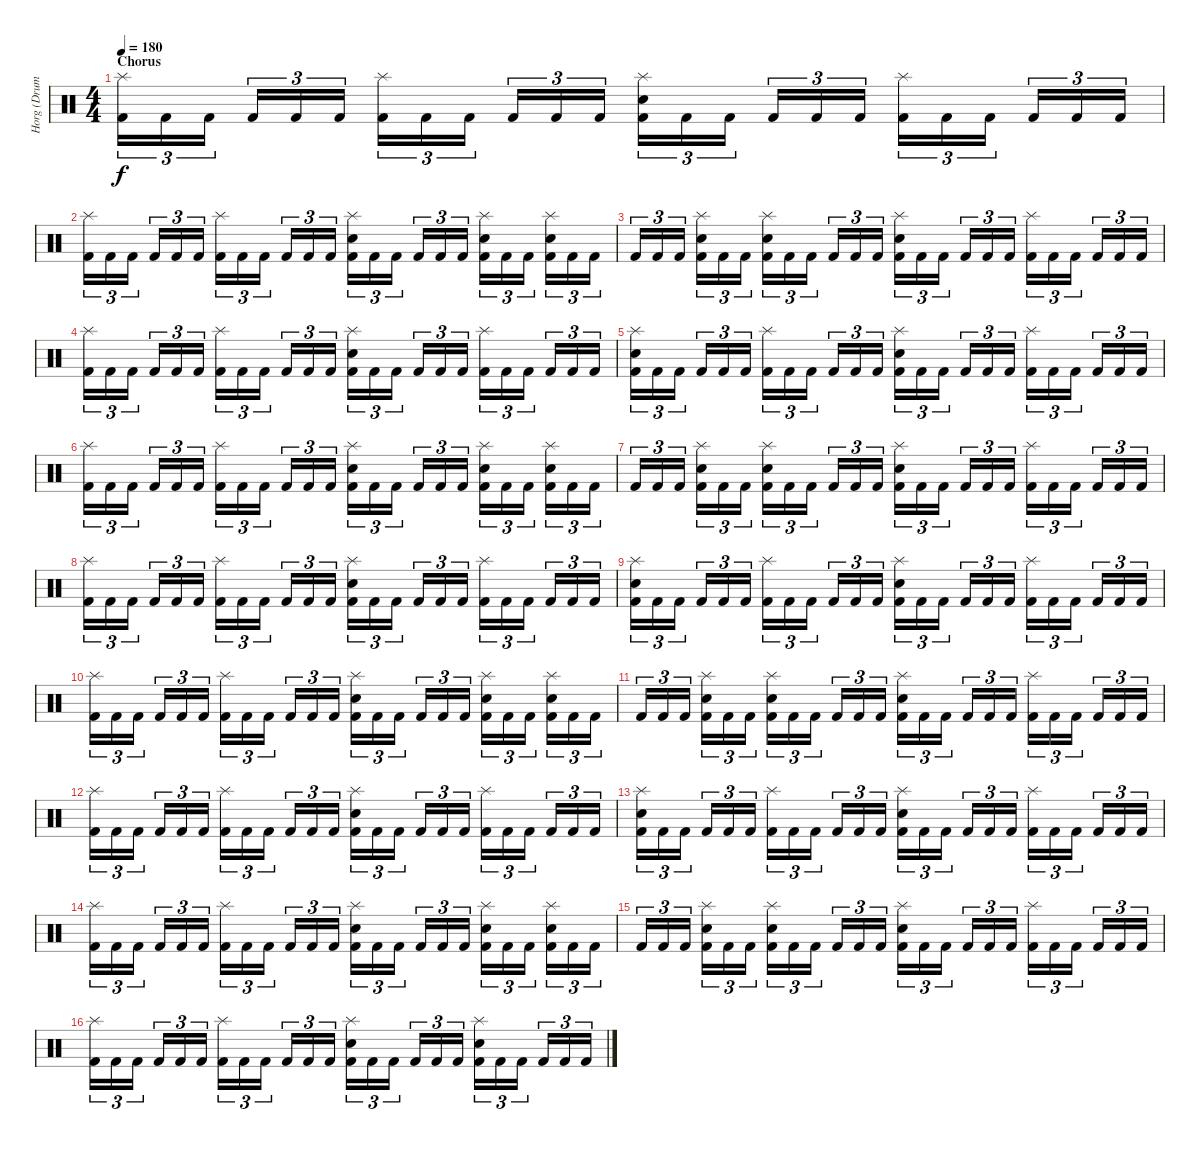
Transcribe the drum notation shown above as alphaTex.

\track ("Horg (Drums)" "Horg (Drum") {instrument percussion}
\staff {score}
\articulation defaults
\ts (4 4)
\section ("" "Chorus")
\tempo 180
\clef neutral
\ks c
("Splash (hit)" "Kick (hit) 2").16{tu (3 2) dy f} "Kick (hit) 2".16{tu (3 2)} "Kick (hit) 2".16{tu (3 2)} "Kick (hit) 2".16{tu (3 2)} "Kick (hit) 2".16{tu (3 2)} "Kick (hit) 2".16{tu (3 2)} ("Splash (hit)" "Kick (hit) 2").16{tu (3 2)} "Kick (hit) 2".16{tu (3 2)} "Kick (hit) 2".16{tu (3 2)} "Kick (hit) 2".16{tu (3 2)} "Kick (hit) 2".16{tu (3 2)} "Kick (hit) 2".16{tu (3 2)} ("Splash (hit)" "Electric Snare (hit)" "Kick (hit) 2").16{tu (3 2)} "Kick (hit) 2".16{tu (3 2)} "Kick (hit) 2".16{tu (3 2)} "Kick (hit) 2".16{tu (3 2)} "Kick (hit) 2".16{tu (3 2)} "Kick (hit) 2".16{tu (3 2)} ("Splash (hit)" "Kick (hit) 2").16{tu (3 2)} "Kick (hit) 2".16{tu (3 2)} "Kick (hit) 2".16{tu (3 2)} "Kick (hit) 2".16{tu (3 2)} "Kick (hit) 2".16{tu (3 2)} "Kick (hit) 2".16{tu (3 2)} |
("Splash (hit)" "Kick (hit) 2").16{tu (3 2)} "Kick (hit) 2".16{tu (3 2)} "Kick (hit) 2".16{tu (3 2)} "Kick (hit) 2".16{tu (3 2)} "Kick (hit) 2".16{tu (3 2)} "Kick (hit) 2".16{tu (3 2)} ("Splash (hit)" "Kick (hit) 2").16{tu (3 2)} "Kick (hit) 2".16{tu (3 2)} "Kick (hit) 2".16{tu (3 2)} "Kick (hit) 2".16{tu (3 2)} "Kick (hit) 2".16{tu (3 2)} "Kick (hit) 2".16{tu (3 2)} ("Splash (hit)" "Electric Snare (hit)" "Kick (hit) 2").16{tu (3 2)} "Kick (hit) 2".16{tu (3 2)} "Kick (hit) 2".16{tu (3 2)} "Kick (hit) 2".16{tu (3 2)} "Kick (hit) 2".16{tu (3 2)} "Kick (hit) 2".16{tu (3 2)} ("Splash (hit)" "Electric Snare (hit)" "Kick (hit) 2").16{tu (3 2)} "Kick (hit) 2".16{tu (3 2)} "Kick (hit) 2".16{tu (3 2)} ("Splash (hit)" "Electric Snare (hit)" "Kick (hit) 2").16{tu (3 2)} "Kick (hit) 2".16{tu (3 2)} "Kick (hit) 2".16{tu (3 2)} |
"Kick (hit) 2".16{tu (3 2)} "Kick (hit) 2".16{tu (3 2)} "Kick (hit) 2".16{tu (3 2)} ("Splash (hit)" "Electric Snare (hit)" "Kick (hit) 2").16{tu (3 2)} "Kick (hit) 2".16{tu (3 2)} "Kick (hit) 2".16{tu (3 2)} ("Splash (hit)" "Electric Snare (hit)" "Kick (hit) 2").16{tu (3 2)} "Kick (hit) 2".16{tu (3 2)} "Kick (hit) 2".16{tu (3 2)} "Kick (hit) 2".16{tu (3 2)} "Kick (hit) 2".16{tu (3 2)} "Kick (hit) 2".16{tu (3 2)} ("Splash (hit)" "Electric Snare (hit)" "Kick (hit) 2").16{tu (3 2)} "Kick (hit) 2".16{tu (3 2)} "Kick (hit) 2".16{tu (3 2)} "Kick (hit) 2".16{tu (3 2)} "Kick (hit) 2".16{tu (3 2)} "Kick (hit) 2".16{tu (3 2)} ("Splash (hit)" "Kick (hit) 2").16{tu (3 2)} "Kick (hit) 2".16{tu (3 2)} "Kick (hit) 2".16{tu (3 2)} "Kick (hit) 2".16{tu (3 2)} "Kick (hit) 2".16{tu (3 2)} "Kick (hit) 2".16{tu (3 2)} |
("Splash (hit)" "Kick (hit) 2").16{tu (3 2)} "Kick (hit) 2".16{tu (3 2)} "Kick (hit) 2".16{tu (3 2)} "Kick (hit) 2".16{tu (3 2)} "Kick (hit) 2".16{tu (3 2)} "Kick (hit) 2".16{tu (3 2)} ("Splash (hit)" "Kick (hit) 2").16{tu (3 2)} "Kick (hit) 2".16{tu (3 2)} "Kick (hit) 2".16{tu (3 2)} "Kick (hit) 2".16{tu (3 2)} "Kick (hit) 2".16{tu (3 2)} "Kick (hit) 2".16{tu (3 2)} ("Splash (hit)" "Electric Snare (hit)" "Kick (hit) 2").16{tu (3 2)} "Kick (hit) 2".16{tu (3 2)} "Kick (hit) 2".16{tu (3 2)} "Kick (hit) 2".16{tu (3 2)} "Kick (hit) 2".16{tu (3 2)} "Kick (hit) 2".16{tu (3 2)} ("Splash (hit)" "Kick (hit) 2").16{tu (3 2)} "Kick (hit) 2".16{tu (3 2)} "Kick (hit) 2".16{tu (3 2)} "Kick (hit) 2".16{tu (3 2)} "Kick (hit) 2".16{tu (3 2)} "Kick (hit) 2".16{tu (3 2)} |
("Splash (hit)" "Electric Snare (hit)" "Kick (hit) 2").16{tu (3 2)} "Kick (hit) 2".16{tu (3 2)} "Kick (hit) 2".16{tu (3 2)} "Kick (hit) 2".16{tu (3 2)} "Kick (hit) 2".16{tu (3 2)} "Kick (hit) 2".16{tu (3 2)} ("Splash (hit)" "Kick (hit) 2").16{tu (3 2)} "Kick (hit) 2".16{tu (3 2)} "Kick (hit) 2".16{tu (3 2)} "Kick (hit) 2".16{tu (3 2)} "Kick (hit) 2".16{tu (3 2)} "Kick (hit) 2".16{tu (3 2)} ("Splash (hit)" "Electric Snare (hit)" "Kick (hit) 2").16{tu (3 2)} "Kick (hit) 2".16{tu (3 2)} "Kick (hit) 2".16{tu (3 2)} "Kick (hit) 2".16{tu (3 2)} "Kick (hit) 2".16{tu (3 2)} "Kick (hit) 2".16{tu (3 2)} ("Splash (hit)" "Kick (hit) 2").16{tu (3 2)} "Kick (hit) 2".16{tu (3 2)} "Kick (hit) 2".16{tu (3 2)} "Kick (hit) 2".16{tu (3 2)} "Kick (hit) 2".16{tu (3 2)} "Kick (hit) 2".16{tu (3 2)} |
("Splash (hit)" "Kick (hit) 2").16{tu (3 2)} "Kick (hit) 2".16{tu (3 2)} "Kick (hit) 2".16{tu (3 2)} "Kick (hit) 2".16{tu (3 2)} "Kick (hit) 2".16{tu (3 2)} "Kick (hit) 2".16{tu (3 2)} ("Splash (hit)" "Kick (hit) 2").16{tu (3 2)} "Kick (hit) 2".16{tu (3 2)} "Kick (hit) 2".16{tu (3 2)} "Kick (hit) 2".16{tu (3 2)} "Kick (hit) 2".16{tu (3 2)} "Kick (hit) 2".16{tu (3 2)} ("Splash (hit)" "Electric Snare (hit)" "Kick (hit) 2").16{tu (3 2)} "Kick (hit) 2".16{tu (3 2)} "Kick (hit) 2".16{tu (3 2)} "Kick (hit) 2".16{tu (3 2)} "Kick (hit) 2".16{tu (3 2)} "Kick (hit) 2".16{tu (3 2)} ("Splash (hit)" "Electric Snare (hit)" "Kick (hit) 2").16{tu (3 2)} "Kick (hit) 2".16{tu (3 2)} "Kick (hit) 2".16{tu (3 2)} ("Splash (hit)" "Electric Snare (hit)" "Kick (hit) 2").16{tu (3 2)} "Kick (hit) 2".16{tu (3 2)} "Kick (hit) 2".16{tu (3 2)} |
"Kick (hit) 2".16{tu (3 2)} "Kick (hit) 2".16{tu (3 2)} "Kick (hit) 2".16{tu (3 2)} ("Splash (hit)" "Electric Snare (hit)" "Kick (hit) 2").16{tu (3 2)} "Kick (hit) 2".16{tu (3 2)} "Kick (hit) 2".16{tu (3 2)} ("Splash (hit)" "Electric Snare (hit)" "Kick (hit) 2").16{tu (3 2)} "Kick (hit) 2".16{tu (3 2)} "Kick (hit) 2".16{tu (3 2)} "Kick (hit) 2".16{tu (3 2)} "Kick (hit) 2".16{tu (3 2)} "Kick (hit) 2".16{tu (3 2)} ("Splash (hit)" "Electric Snare (hit)" "Kick (hit) 2").16{tu (3 2)} "Kick (hit) 2".16{tu (3 2)} "Kick (hit) 2".16{tu (3 2)} "Kick (hit) 2".16{tu (3 2)} "Kick (hit) 2".16{tu (3 2)} "Kick (hit) 2".16{tu (3 2)} ("Splash (hit)" "Kick (hit) 2").16{tu (3 2)} "Kick (hit) 2".16{tu (3 2)} "Kick (hit) 2".16{tu (3 2)} "Kick (hit) 2".16{tu (3 2)} "Kick (hit) 2".16{tu (3 2)} "Kick (hit) 2".16{tu (3 2)} |
("Splash (hit)" "Kick (hit) 2").16{tu (3 2)} "Kick (hit) 2".16{tu (3 2)} "Kick (hit) 2".16{tu (3 2)} "Kick (hit) 2".16{tu (3 2)} "Kick (hit) 2".16{tu (3 2)} "Kick (hit) 2".16{tu (3 2)} ("Splash (hit)" "Kick (hit) 2").16{tu (3 2)} "Kick (hit) 2".16{tu (3 2)} "Kick (hit) 2".16{tu (3 2)} "Kick (hit) 2".16{tu (3 2)} "Kick (hit) 2".16{tu (3 2)} "Kick (hit) 2".16{tu (3 2)} ("Splash (hit)" "Electric Snare (hit)" "Kick (hit) 2").16{tu (3 2)} "Kick (hit) 2".16{tu (3 2)} "Kick (hit) 2".16{tu (3 2)} "Kick (hit) 2".16{tu (3 2)} "Kick (hit) 2".16{tu (3 2)} "Kick (hit) 2".16{tu (3 2)} ("Splash (hit)" "Kick (hit) 2").16{tu (3 2)} "Kick (hit) 2".16{tu (3 2)} "Kick (hit) 2".16{tu (3 2)} "Kick (hit) 2".16{tu (3 2)} "Kick (hit) 2".16{tu (3 2)} "Kick (hit) 2".16{tu (3 2)} |
("Splash (hit)" "Electric Snare (hit)" "Kick (hit) 2").16{tu (3 2)} "Kick (hit) 2".16{tu (3 2)} "Kick (hit) 2".16{tu (3 2)} "Kick (hit) 2".16{tu (3 2)} "Kick (hit) 2".16{tu (3 2)} "Kick (hit) 2".16{tu (3 2)} ("Splash (hit)" "Kick (hit) 2").16{tu (3 2)} "Kick (hit) 2".16{tu (3 2)} "Kick (hit) 2".16{tu (3 2)} "Kick (hit) 2".16{tu (3 2)} "Kick (hit) 2".16{tu (3 2)} "Kick (hit) 2".16{tu (3 2)} ("Splash (hit)" "Electric Snare (hit)" "Kick (hit) 2").16{tu (3 2)} "Kick (hit) 2".16{tu (3 2)} "Kick (hit) 2".16{tu (3 2)} "Kick (hit) 2".16{tu (3 2)} "Kick (hit) 2".16{tu (3 2)} "Kick (hit) 2".16{tu (3 2)} ("Splash (hit)" "Kick (hit) 2").16{tu (3 2)} "Kick (hit) 2".16{tu (3 2)} "Kick (hit) 2".16{tu (3 2)} "Kick (hit) 2".16{tu (3 2)} "Kick (hit) 2".16{tu (3 2)} "Kick (hit) 2".16{tu (3 2)} |
("Splash (hit)" "Kick (hit) 2").16{tu (3 2)} "Kick (hit) 2".16{tu (3 2)} "Kick (hit) 2".16{tu (3 2)} "Kick (hit) 2".16{tu (3 2)} "Kick (hit) 2".16{tu (3 2)} "Kick (hit) 2".16{tu (3 2)} ("Splash (hit)" "Kick (hit) 2").16{tu (3 2)} "Kick (hit) 2".16{tu (3 2)} "Kick (hit) 2".16{tu (3 2)} "Kick (hit) 2".16{tu (3 2)} "Kick (hit) 2".16{tu (3 2)} "Kick (hit) 2".16{tu (3 2)} ("Splash (hit)" "Electric Snare (hit)" "Kick (hit) 2").16{tu (3 2)} "Kick (hit) 2".16{tu (3 2)} "Kick (hit) 2".16{tu (3 2)} "Kick (hit) 2".16{tu (3 2)} "Kick (hit) 2".16{tu (3 2)} "Kick (hit) 2".16{tu (3 2)} ("Splash (hit)" "Electric Snare (hit)" "Kick (hit) 2").16{tu (3 2)} "Kick (hit) 2".16{tu (3 2)} "Kick (hit) 2".16{tu (3 2)} ("Splash (hit)" "Electric Snare (hit)" "Kick (hit) 2").16{tu (3 2)} "Kick (hit) 2".16{tu (3 2)} "Kick (hit) 2".16{tu (3 2)} |
"Kick (hit) 2".16{tu (3 2)} "Kick (hit) 2".16{tu (3 2)} "Kick (hit) 2".16{tu (3 2)} ("Splash (hit)" "Electric Snare (hit)" "Kick (hit) 2").16{tu (3 2)} "Kick (hit) 2".16{tu (3 2)} "Kick (hit) 2".16{tu (3 2)} ("Splash (hit)" "Electric Snare (hit)" "Kick (hit) 2").16{tu (3 2)} "Kick (hit) 2".16{tu (3 2)} "Kick (hit) 2".16{tu (3 2)} "Kick (hit) 2".16{tu (3 2)} "Kick (hit) 2".16{tu (3 2)} "Kick (hit) 2".16{tu (3 2)} ("Splash (hit)" "Electric Snare (hit)" "Kick (hit) 2").16{tu (3 2)} "Kick (hit) 2".16{tu (3 2)} "Kick (hit) 2".16{tu (3 2)} "Kick (hit) 2".16{tu (3 2)} "Kick (hit) 2".16{tu (3 2)} "Kick (hit) 2".16{tu (3 2)} ("Splash (hit)" "Kick (hit) 2").16{tu (3 2)} "Kick (hit) 2".16{tu (3 2)} "Kick (hit) 2".16{tu (3 2)} "Kick (hit) 2".16{tu (3 2)} "Kick (hit) 2".16{tu (3 2)} "Kick (hit) 2".16{tu (3 2)} |
("Splash (hit)" "Kick (hit) 2").16{tu (3 2)} "Kick (hit) 2".16{tu (3 2)} "Kick (hit) 2".16{tu (3 2)} "Kick (hit) 2".16{tu (3 2)} "Kick (hit) 2".16{tu (3 2)} "Kick (hit) 2".16{tu (3 2)} ("Splash (hit)" "Kick (hit) 2").16{tu (3 2)} "Kick (hit) 2".16{tu (3 2)} "Kick (hit) 2".16{tu (3 2)} "Kick (hit) 2".16{tu (3 2)} "Kick (hit) 2".16{tu (3 2)} "Kick (hit) 2".16{tu (3 2)} ("Splash (hit)" "Electric Snare (hit)" "Kick (hit) 2").16{tu (3 2)} "Kick (hit) 2".16{tu (3 2)} "Kick (hit) 2".16{tu (3 2)} "Kick (hit) 2".16{tu (3 2)} "Kick (hit) 2".16{tu (3 2)} "Kick (hit) 2".16{tu (3 2)} ("Splash (hit)" "Kick (hit) 2").16{tu (3 2)} "Kick (hit) 2".16{tu (3 2)} "Kick (hit) 2".16{tu (3 2)} "Kick (hit) 2".16{tu (3 2)} "Kick (hit) 2".16{tu (3 2)} "Kick (hit) 2".16{tu (3 2)} |
("Splash (hit)" "Electric Snare (hit)" "Kick (hit) 2").16{tu (3 2)} "Kick (hit) 2".16{tu (3 2)} "Kick (hit) 2".16{tu (3 2)} "Kick (hit) 2".16{tu (3 2)} "Kick (hit) 2".16{tu (3 2)} "Kick (hit) 2".16{tu (3 2)} ("Splash (hit)" "Kick (hit) 2").16{tu (3 2)} "Kick (hit) 2".16{tu (3 2)} "Kick (hit) 2".16{tu (3 2)} "Kick (hit) 2".16{tu (3 2)} "Kick (hit) 2".16{tu (3 2)} "Kick (hit) 2".16{tu (3 2)} ("Splash (hit)" "Electric Snare (hit)" "Kick (hit) 2").16{tu (3 2)} "Kick (hit) 2".16{tu (3 2)} "Kick (hit) 2".16{tu (3 2)} "Kick (hit) 2".16{tu (3 2)} "Kick (hit) 2".16{tu (3 2)} "Kick (hit) 2".16{tu (3 2)} ("Splash (hit)" "Kick (hit) 2").16{tu (3 2)} "Kick (hit) 2".16{tu (3 2)} "Kick (hit) 2".16{tu (3 2)} "Kick (hit) 2".16{tu (3 2)} "Kick (hit) 2".16{tu (3 2)} "Kick (hit) 2".16{tu (3 2)} |
("Splash (hit)" "Kick (hit) 2").16{tu (3 2)} "Kick (hit) 2".16{tu (3 2)} "Kick (hit) 2".16{tu (3 2)} "Kick (hit) 2".16{tu (3 2)} "Kick (hit) 2".16{tu (3 2)} "Kick (hit) 2".16{tu (3 2)} ("Splash (hit)" "Kick (hit) 2").16{tu (3 2)} "Kick (hit) 2".16{tu (3 2)} "Kick (hit) 2".16{tu (3 2)} "Kick (hit) 2".16{tu (3 2)} "Kick (hit) 2".16{tu (3 2)} "Kick (hit) 2".16{tu (3 2)} ("Splash (hit)" "Electric Snare (hit)" "Kick (hit) 2").16{tu (3 2)} "Kick (hit) 2".16{tu (3 2)} "Kick (hit) 2".16{tu (3 2)} "Kick (hit) 2".16{tu (3 2)} "Kick (hit) 2".16{tu (3 2)} "Kick (hit) 2".16{tu (3 2)} ("Splash (hit)" "Electric Snare (hit)" "Kick (hit) 2").16{tu (3 2)} "Kick (hit) 2".16{tu (3 2)} "Kick (hit) 2".16{tu (3 2)} ("Splash (hit)" "Electric Snare (hit)" "Kick (hit) 2").16{tu (3 2)} "Kick (hit) 2".16{tu (3 2)} "Kick (hit) 2".16{tu (3 2)} |
"Kick (hit) 2".16{tu (3 2)} "Kick (hit) 2".16{tu (3 2)} "Kick (hit) 2".16{tu (3 2)} ("Splash (hit)" "Electric Snare (hit)" "Kick (hit) 2").16{tu (3 2)} "Kick (hit) 2".16{tu (3 2)} "Kick (hit) 2".16{tu (3 2)} ("Splash (hit)" "Electric Snare (hit)" "Kick (hit) 2").16{tu (3 2)} "Kick (hit) 2".16{tu (3 2)} "Kick (hit) 2".16{tu (3 2)} "Kick (hit) 2".16{tu (3 2)} "Kick (hit) 2".16{tu (3 2)} "Kick (hit) 2".16{tu (3 2)} ("Splash (hit)" "Electric Snare (hit)" "Kick (hit) 2").16{tu (3 2)} "Kick (hit) 2".16{tu (3 2)} "Kick (hit) 2".16{tu (3 2)} "Kick (hit) 2".16{tu (3 2)} "Kick (hit) 2".16{tu (3 2)} "Kick (hit) 2".16{tu (3 2)} ("Splash (hit)" "Kick (hit) 2").16{tu (3 2)} "Kick (hit) 2".16{tu (3 2)} "Kick (hit) 2".16{tu (3 2)} "Kick (hit) 2".16{tu (3 2)} "Kick (hit) 2".16{tu (3 2)} "Kick (hit) 2".16{tu (3 2)} |
("Splash (hit)" "Kick (hit) 2").16{tu (3 2)} "Kick (hit) 2".16{tu (3 2)} "Kick (hit) 2".16{tu (3 2)} "Kick (hit) 2".16{tu (3 2)} "Kick (hit) 2".16{tu (3 2)} "Kick (hit) 2".16{tu (3 2)} ("Splash (hit)" "Kick (hit) 2").16{tu (3 2)} "Kick (hit) 2".16{tu (3 2)} "Kick (hit) 2".16{tu (3 2)} "Kick (hit) 2".16{tu (3 2)} "Kick (hit) 2".16{tu (3 2)} "Kick (hit) 2".16{tu (3 2)} ("Splash (hit)" "Electric Snare (hit)" "Kick (hit) 2").16{tu (3 2)} "Kick (hit) 2".16{tu (3 2)} "Kick (hit) 2".16{tu (3 2)} "Kick (hit) 2".16{tu (3 2)} "Kick (hit) 2".16{tu (3 2)} "Kick (hit) 2".16{tu (3 2)} ("Splash (hit)" "Electric Snare (hit)" "Kick (hit) 2").16{tu (3 2)} "Kick (hit) 2".16{tu (3 2)} "Kick (hit) 2".16{tu (3 2)} "Kick (hit) 2".16{tu (3 2)} "Kick (hit) 2".16{tu (3 2)} "Kick (hit) 2".16{tu (3 2)}
